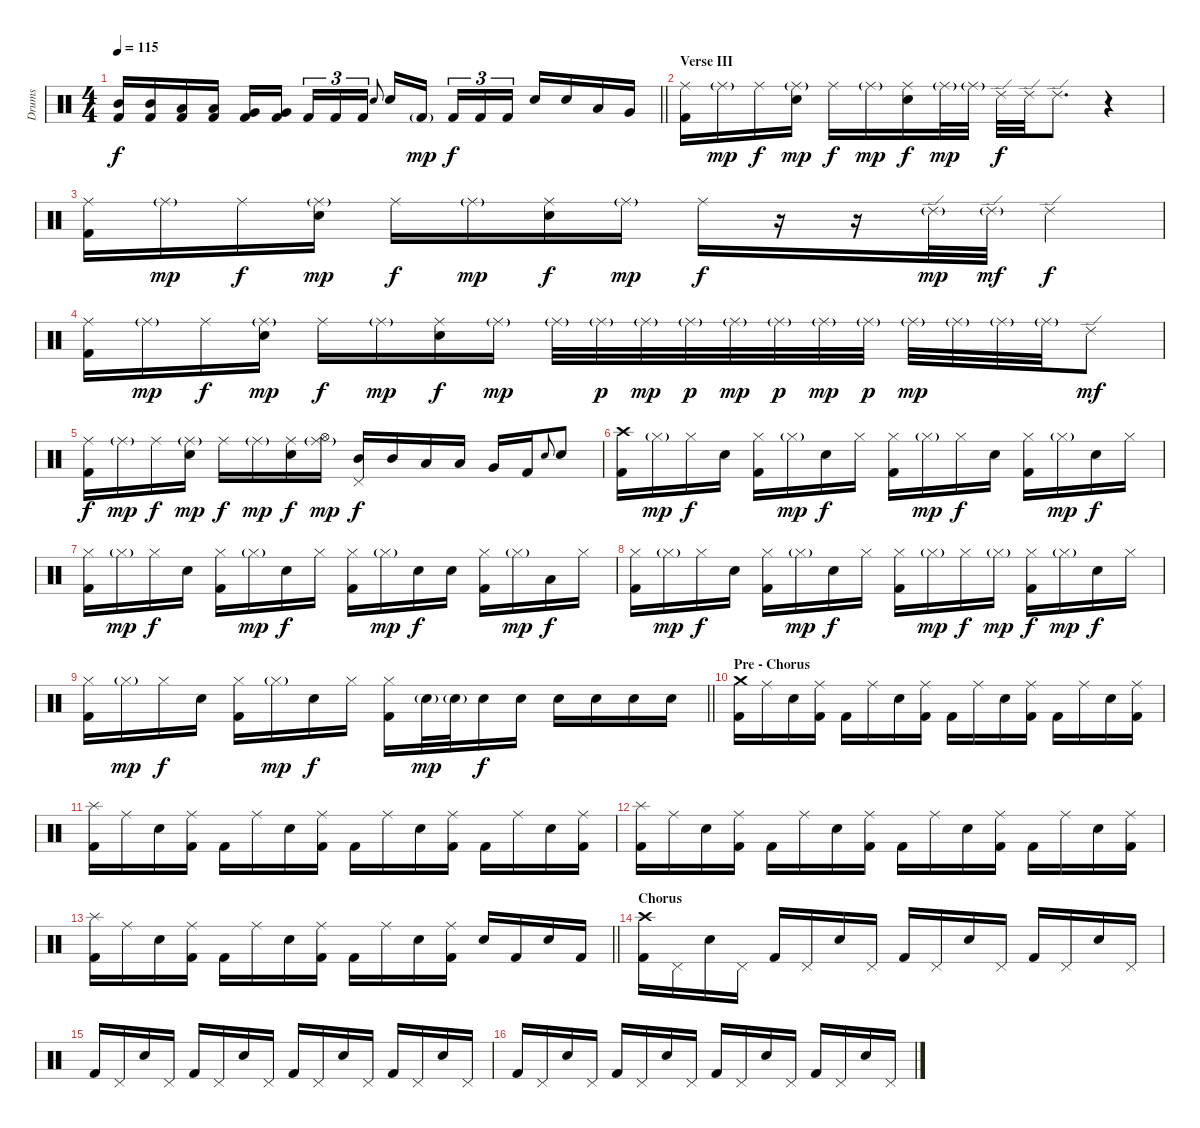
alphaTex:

\track ("Drums" "Drums") {instrument percussion}
\staff {score}
\articulation defaults
\ts (4 4)
\tempo 115
\clef neutral
\barLineRight lightlight
\ks c
("Mid Tom (hit)" "Kick (hit) 2").16{dy f} ("Mid Tom (hit)" "Kick (hit) 2").16 ("Low Tom (hit)" "Kick (hit) 2").16 ("Low Tom (hit)" "Kick (hit) 2").16 ("Very Low Tom (hit)" "Kick (hit) 2").16 ("Very Low Tom (hit)" "Kick (hit) 2").16{beam splitsecondary} "Kick (hit) 2".16{tu (3 2)} "Kick (hit) 2".16{tu (3 2)} "Kick (hit) 2".16{tu (3 2)} "Electric Snare (hit)".8{gr onbeat} "Electric Snare (hit)".16 "Kick (hit) 2"{g}.16{dy mp beam splitsecondary} "Kick (hit) 2".16{tu (3 2) dy f} "Kick (hit) 2".16{tu (3 2)} "Kick (hit) 2".16{tu (3 2)} "Electric Snare (hit)".16 "Electric Snare (hit)".16 "Low Tom (hit)".16 "Very Low Tom (hit)".16 |
\section ("" "Verse III")
("Ride (middle)" "Kick (hit) 2").16 "Ride (middle)"{g}.16{dy mp} "Ride (middle)".16{dy f} ("Ride (middle)"{g} "Electric Snare (hit)").16{dy mp} "Ride (middle)".16{dy f} "Ride (middle)"{g}.16{dy mp} ("Ride (middle)" "Electric Snare (hit)").16{dy f} "Ride (middle)"{g}.32{dy mp} "Ride (middle)"{g}.32 "Ride (edge) 2".32{dy f} "Ride (edge) 2".32 "Ride (edge) 2".8{d} r.4 |
("Ride (middle)" "Kick (hit) 2").16 "Ride (middle)"{g}.16{dy mp} "Ride (middle)".16{dy f} ("Ride (middle)"{g} "Electric Snare (hit)").16{dy mp} "Ride (middle)".16{dy f} "Ride (middle)"{g}.16{dy mp} ("Ride (middle)" "Electric Snare (hit)").16{dy f} "Ride (middle)"{g}.16{dy mp} "Ride (middle)".16{dy f} r.16 r.16 "Ride (edge) 2"{g}.32{dy mp} "Ride (edge) 2"{g}.32{dy mf} "Ride (edge) 2".4{dy f} |
("Ride (middle)" "Kick (hit) 2").16 "Ride (middle)"{g}.16{dy mp} "Ride (middle)".16{dy f} ("Ride (middle)"{g} "Electric Snare (hit)").16{dy mp} "Ride (middle)".16{dy f} "Ride (middle)"{g}.16{dy mp} ("Ride (middle)" "Electric Snare (hit)").16{dy f} "Ride (middle)"{g}.16{dy mp} "Ride (middle)"{g}.32 "Ride (middle)"{g}.32{dy p} "Ride (middle)"{g}.32{dy mp} "Ride (middle)"{g}.32{dy p} "Ride (middle)"{g}.32{dy mp} "Ride (middle)"{g}.32{dy p} "Ride (middle)"{g}.32{dy mp} "Ride (middle)"{g}.32{dy p} "Ride (middle)"{g}.32{dy mp} "Ride (middle)"{g}.32 "Ride (middle)"{g}.32 "Ride (middle)"{g}.32 "Ride (edge) 2".8{dy mf} |
("Ride (middle)" "Kick (hit) 2").16{dy f} "Ride (middle)"{g}.16{dy mp} "Ride (middle)".16{dy f} ("Ride (middle)"{g} "Electric Snare (hit)").16{dy mp} "Ride (middle)".16{dy f} "Ride (middle)"{g}.16{dy mp} ("Ride (middle)" "Electric Snare (hit)").16{dy f} ("Ride (middle)"{g} "Hi-Hat (open)").16{dy mp} ("Mid Tom (hit)" "Pedal Hi-Hat (hit)").16{dy f} "Mid Tom (hit)".16 "Low Tom (hit)".16 "Low Tom (hit)".16 "Very Low Tom (hit)".16 "Kick (hit) 2".16 "Electric Snare (hit)".8{gr onbeat} "Electric Snare (hit)".8 |
("Crash high (hit)" "Kick (hit) 2").16 "Hi-Hat (closed)"{g}.16{dy mp} "Hi-Hat (closed)".16{dy f} "Electric Snare (hit)".16 ("Hi-Hat (closed)" "Kick (hit) 2").16 "Hi-Hat (closed)"{g}.16{dy mp} "Electric Snare (hit)".16{dy f} "Hi-Hat (closed)".16 ("Hi-Hat (closed)" "Kick (hit) 2").16 "Hi-Hat (closed)"{g}.16{dy mp} "Hi-Hat (closed)".16{dy f} "Electric Snare (hit)".16 ("Hi-Hat (closed)" "Kick (hit) 2").16 "Hi-Hat (closed)"{g}.16{dy mp} "Electric Snare (hit)".16{dy f} "Hi-Hat (closed)".16 |
("Hi-Hat (closed)" "Kick (hit) 2").16 "Hi-Hat (closed)"{g}.16{dy mp} "Hi-Hat (closed)".16{dy f} "Electric Snare (hit)".16 ("Hi-Hat (closed)" "Kick (hit) 2").16 "Hi-Hat (closed)"{g}.16{dy mp} "Electric Snare (hit)".16{dy f} "Hi-Hat (closed)".16 ("Hi-Hat (closed)" "Kick (hit) 2").16 "Hi-Hat (closed)"{g}.16{dy mp} "Electric Snare (hit)".16{dy f} "Electric Snare (hit)".16 ("Hi-Hat (closed)" "Kick (hit) 2").16 "Hi-Hat (closed)"{g}.16{dy mp} "Low Tom (hit)".16{dy f} "Hi-Hat (closed)".16 |
("Hi-Hat (closed)" "Kick (hit) 2").16 "Hi-Hat (closed)"{g}.16{dy mp} "Hi-Hat (closed)".16{dy f} "Electric Snare (hit)".16 ("Hi-Hat (closed)" "Kick (hit) 2").16 "Hi-Hat (closed)"{g}.16{dy mp} "Electric Snare (hit)".16{dy f} "Hi-Hat (closed)".16 ("Hi-Hat (closed)" "Kick (hit) 2").16 "Hi-Hat (closed)"{g}.16{dy mp} "Hi-Hat (closed)".16{dy f} "Hi-Hat (closed)"{g}.16{dy mp} ("Hi-Hat (closed)" "Kick (hit) 2").16{dy f} "Hi-Hat (closed)"{g}.16{dy mp} "Electric Snare (hit)".16{dy f} "Hi-Hat (closed)".16 |
\barLineRight lightlight
("Hi-Hat (closed)" "Kick (hit) 2").16 "Hi-Hat (closed)"{g}.16{dy mp} "Hi-Hat (closed)".16{dy f} "Electric Snare (hit)".16 ("Hi-Hat (closed)" "Kick (hit) 2").16 "Hi-Hat (closed)"{g}.16{dy mp} "Electric Snare (hit)".16{dy f} "Hi-Hat (closed)".16 ("Hi-Hat (closed)" "Kick (hit) 2").16 "Electric Snare (hit)"{g}.32{dy mp} "Electric Snare (hit)"{g}.32 "Electric Snare (hit)".16{dy f} "Electric Snare (hit)".16 "Electric Snare (hit)".16 "Electric Snare (hit)".16 "Electric Snare (hit)".16 "Electric Snare (hit)".16 |
\section ("" "Pre - Chorus")
("Crash medium (hit)" "Kick (hit) 2").16 "Ride (middle)".16 "Electric Snare (hit)".16 ("Ride (middle)" "Kick (hit) 2").16 "Kick (hit) 2".16 "Ride (middle)".16 "Electric Snare (hit)".16 ("Ride (middle)" "Kick (hit) 2").16 "Kick (hit) 2".16 "Ride (middle)".16 "Electric Snare (hit)".16 ("Ride (middle)" "Kick (hit) 2").16 "Kick (hit) 2".16 "Ride (middle)".16 "Electric Snare (hit)".16 ("Ride (middle)" "Kick (hit) 2").16 |
("Splash (hit)" "Kick (hit) 2").16 "Ride (middle)".16 "Electric Snare (hit)".16 ("Ride (middle)" "Kick (hit) 2").16 "Kick (hit) 2".16 "Ride (middle)".16 "Electric Snare (hit)".16 ("Ride (middle)" "Kick (hit) 2").16 "Kick (hit) 2".16 "Ride (middle)".16 "Electric Snare (hit)".16 ("Ride (middle)" "Kick (hit) 2").16 "Kick (hit) 2".16 "Ride (middle)".16 "Electric Snare (hit)".16 ("Ride (middle)" "Kick (hit) 2").16 |
("Splash (hit)" "Kick (hit) 2").16 "Ride (middle)".16 "Electric Snare (hit)".16 ("Ride (middle)" "Kick (hit) 2").16 "Kick (hit) 2".16 "Ride (middle)".16 "Electric Snare (hit)".16 ("Ride (middle)" "Kick (hit) 2").16 "Kick (hit) 2".16 "Ride (middle)".16 "Electric Snare (hit)".16 ("Ride (middle)" "Kick (hit) 2").16 "Kick (hit) 2".16 "Ride (middle)".16 "Electric Snare (hit)".16 ("Ride (middle)" "Kick (hit) 2").16 |
\barLineRight lightlight
("Splash (hit)" "Kick (hit) 2").16 "Ride (middle)".16 "Electric Snare (hit)".16 ("Ride (middle)" "Kick (hit) 2").16 "Kick (hit) 2".16 "Ride (middle)".16 "Electric Snare (hit)".16 ("Ride (middle)" "Kick (hit) 2").16 "Kick (hit) 2".16 "Ride (middle)".16 "Electric Snare (hit)".16 ("Ride (middle)" "Kick (hit) 2").16 "Electric Snare (hit)".16 "Kick (hit) 2".16 "Electric Snare (hit)".16 "Kick (hit) 2".16 |
\section ("" "Chorus")
("Crash high (hit)" "Kick (hit) 2").16 "Pedal Hi-Hat (hit)".16 "Electric Snare (hit)".16 "Pedal Hi-Hat (hit)".16 "Kick (hit) 2".16 "Pedal Hi-Hat (hit)".16 "Electric Snare (hit)".16 "Pedal Hi-Hat (hit)".16 "Kick (hit) 2".16 "Pedal Hi-Hat (hit)".16 "Electric Snare (hit)".16 "Pedal Hi-Hat (hit)".16 "Kick (hit) 2".16 "Pedal Hi-Hat (hit)".16 "Electric Snare (hit)".16 "Pedal Hi-Hat (hit)".16 |
"Kick (hit) 2".16 "Pedal Hi-Hat (hit)".16 "Electric Snare (hit)".16 "Pedal Hi-Hat (hit)".16 "Kick (hit) 2".16 "Pedal Hi-Hat (hit)".16 "Electric Snare (hit)".16 "Pedal Hi-Hat (hit)".16 "Kick (hit) 2".16 "Pedal Hi-Hat (hit)".16 "Electric Snare (hit)".16 "Pedal Hi-Hat (hit)".16 "Kick (hit) 2".16 "Pedal Hi-Hat (hit)".16 "Electric Snare (hit)".16 "Pedal Hi-Hat (hit)".16 |
"Kick (hit) 2".16 "Pedal Hi-Hat (hit)".16 "Electric Snare (hit)".16 "Pedal Hi-Hat (hit)".16 "Kick (hit) 2".16 "Pedal Hi-Hat (hit)".16 "Electric Snare (hit)".16 "Pedal Hi-Hat (hit)".16 "Kick (hit) 2".16 "Pedal Hi-Hat (hit)".16 "Electric Snare (hit)".16 "Pedal Hi-Hat (hit)".16 "Kick (hit) 2".16 "Pedal Hi-Hat (hit)".16 "Electric Snare (hit)".16 "Pedal Hi-Hat (hit)".16
